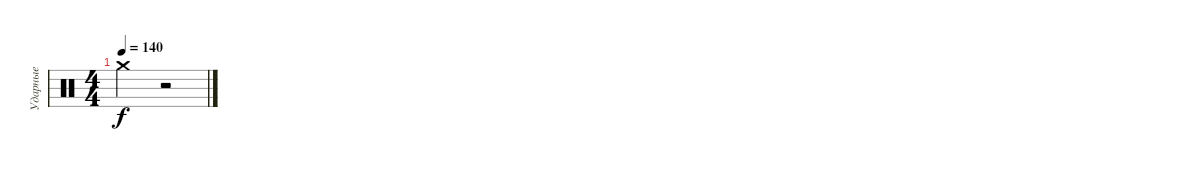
\track ("Ударные" "Ударные") {instrument percussion}
\staff {score}
\articulation defaults
\ts (4 4)
\tempo 140
\clef neutral
\ks c "Crash medium (hit)".2{dy f}
r.2
